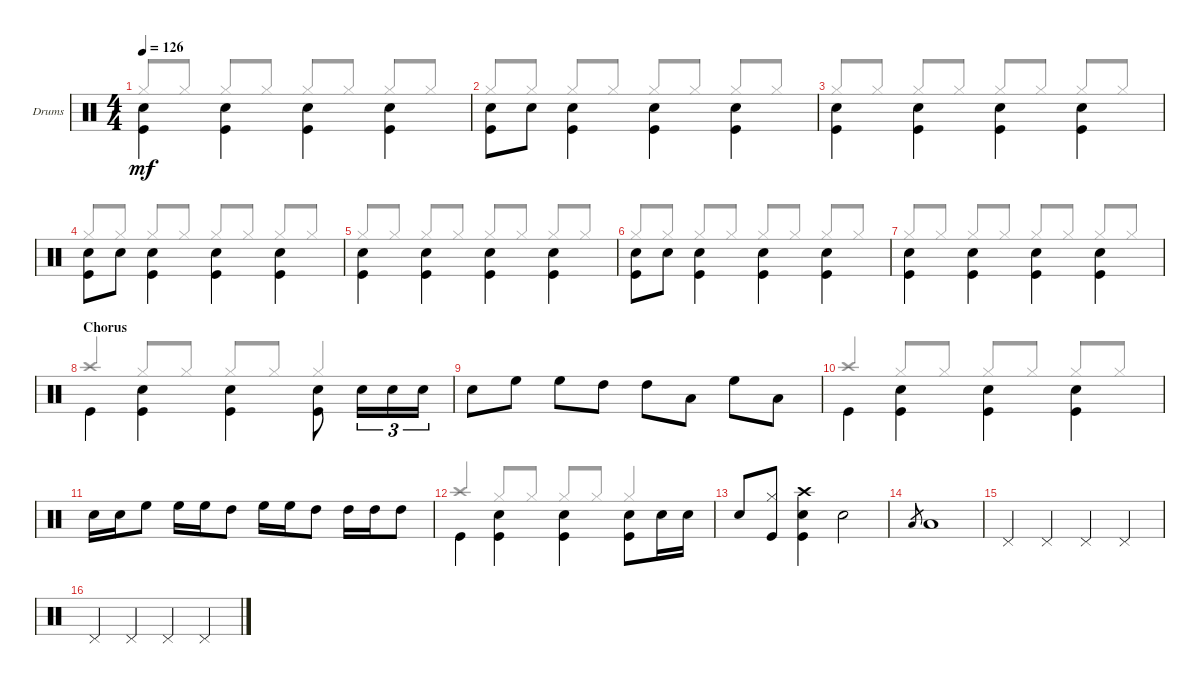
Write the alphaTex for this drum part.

\defaultSystemsLayout 4
\bracketExtendMode groupsimilarinstruments
\firstSystemTrackNameOrientation horizontal
\otherSystemsTrackNameOrientation horizontal
\track ("PETER CRISS" "Drums") {instrument percussion}
\staff {score}
\articulation defaults
\voice
\ts (4 4)
\tempo 126
\clef neutral
\ks c
("Snare (hit) 2" "Kick (hit)").4{dy mf beam invert} ("Snare (hit) 2" "Kick (hit)").4{beam invert} ("Snare (hit) 2" "Kick (hit)").4{beam invert} ("Snare (hit) 2" "Kick (hit)").4{beam invert} |
("Kick (hit)" "Snare (hit) 2").8{beam invert} "Snare (hit) 2".8 ("Snare (hit) 2" "Kick (hit)").4{beam invert} ("Snare (hit) 2" "Kick (hit)").4{beam invert} ("Snare (hit) 2" "Kick (hit)").4{beam invert} |
("Snare (hit) 2" "Kick (hit)").4{beam invert} ("Snare (hit) 2" "Kick (hit)").4{beam invert} ("Snare (hit) 2" "Kick (hit)").4{beam invert} ("Snare (hit) 2" "Kick (hit)").4{beam invert} |
("Kick (hit)" "Snare (hit) 2").8{beam invert} "Snare (hit) 2".8 ("Snare (hit) 2" "Kick (hit)").4{beam invert} ("Snare (hit) 2" "Kick (hit)").4{beam invert} ("Snare (hit) 2" "Kick (hit)").4{beam invert} |
("Snare (hit) 2" "Kick (hit)").4{beam invert} ("Snare (hit) 2" "Kick (hit)").4{beam invert} ("Snare (hit) 2" "Kick (hit)").4{beam invert} ("Snare (hit) 2" "Kick (hit)").4{beam invert} |
("Kick (hit)" "Snare (hit) 2").8{beam invert} "Snare (hit) 2".8 ("Snare (hit) 2" "Kick (hit)").4{beam invert} ("Snare (hit) 2" "Kick (hit)").4{beam invert} ("Snare (hit) 2" "Kick (hit)").4{beam invert} |
("Snare (hit) 2" "Kick (hit)").4{beam invert} ("Snare (hit) 2" "Kick (hit)").4{beam invert} ("Snare (hit) 2" "Kick (hit)").4{beam invert} ("Snare (hit) 2" "Kick (hit)").4{beam invert} |
\section ("" "Chorus")
"Kick (hit)".4{beam invert} ("Snare (hit) 2" "Kick (hit)").4{beam invert} ("Snare (hit) 2" "Kick (hit)").4{beam invert} ("Snare (hit) 2" "Kick (hit)").8{beam invert} "Snare (hit) 2".16{tu (3 2) beam invert} "Snare (hit) 2".16{tu (3 2)} "Snare (hit) 2".16{tu (3 2)} |
"Snare (hit) 2".8 "High Floor Tom (hit)".8 "High Floor Tom (hit)".8 "High Tom (hit)".8 "High Tom (hit)".8 "Low Tom (hit)".8 "High Floor Tom (hit)".8 "Low Tom (hit)".8 |
"Kick (hit)".4{beam invert} ("Snare (hit) 2" "Kick (hit)").4{beam invert} ("Snare (hit) 2" "Kick (hit)").4{beam invert} ("Snare (hit) 2" "Kick (hit)").4{beam invert} |
"Snare (hit) 2".16 "Snare (hit) 2".16 "High Floor Tom (hit)".8 "High Floor Tom (hit)".16 "High Floor Tom (hit)".16 "High Tom (hit)".8 "High Floor Tom (hit)".16 "High Floor Tom (hit)".16 "High Tom (hit)".8 "High Tom (hit)".16 "High Tom (hit)".16 "High Tom (hit)".8 |
"Kick (hit)".4{beam invert} ("Snare (hit) 2" "Kick (hit)").4{beam invert} ("Snare (hit) 2" "Kick (hit)").4{beam invert} ("Snare (hit) 2" "Kick (hit)").8{beam invert} "Snare (hit) 2".16 "Snare (hit) 2".16 |
"Snare (hit) 2".8{beam invert} ("Kick (hit)" "Hi-Hat (closed)").8 ("Crash high (hit)" "Snare (hit) 2" "Kick (hit)").4 "Snare (hit) 2".2 |
"Low Tom (hit)".8{gr} "Low Tom (hit)".1 |
"Pedal Hi-Hat (hit)".4 "Pedal Hi-Hat (hit)".4 "Pedal Hi-Hat (hit)".4 "Pedal Hi-Hat (hit)".4 |
"Pedal Hi-Hat (hit)".4 "Pedal Hi-Hat (hit)".4 "Pedal Hi-Hat (hit)".4 "Pedal Hi-Hat (hit)".4
\voice
\clef neutral
\ottava regular
\simile none
\ks c "Hi-Hat (closed)".8{dy mf beam invert} "Hi-Hat (closed)".8 "Hi-Hat (closed)".8{beam invert} "Hi-Hat (closed)".8 "Hi-Hat (closed)".8{beam invert} "Hi-Hat (closed)".8 "Hi-Hat (closed)".8{beam invert} "Hi-Hat (closed)".8
|
"Hi-Hat (closed)".8{beam invert} "Hi-Hat (closed)".8 "Hi-Hat (closed)".8{beam invert} "Hi-Hat (closed)".8 "Hi-Hat (closed)".8{beam invert} "Hi-Hat (closed)".8 "Hi-Hat (closed)".8{beam invert} "Hi-Hat (closed)".8 |
"Hi-Hat (closed)".8{beam invert} "Hi-Hat (closed)".8 "Hi-Hat (closed)".8{beam invert} "Hi-Hat (closed)".8 "Hi-Hat (closed)".8{beam invert} "Hi-Hat (closed)".8 "Hi-Hat (closed)".8{beam invert} "Hi-Hat (closed)".8 |
"Hi-Hat (closed)".8{beam invert} "Hi-Hat (closed)".8 "Hi-Hat (closed)".8{beam invert} "Hi-Hat (closed)".8 "Hi-Hat (closed)".8{beam invert} "Hi-Hat (closed)".8 "Hi-Hat (closed)".8{beam invert} "Hi-Hat (closed)".8 |
"Hi-Hat (closed)".8{beam invert} "Hi-Hat (closed)".8 "Hi-Hat (closed)".8{beam invert} "Hi-Hat (closed)".8 "Hi-Hat (closed)".8{beam invert} "Hi-Hat (closed)".8 "Hi-Hat (closed)".8{beam invert} "Hi-Hat (closed)".8 |
"Hi-Hat (closed)".8{beam invert} "Hi-Hat (closed)".8 "Hi-Hat (closed)".8{beam invert} "Hi-Hat (closed)".8 "Hi-Hat (closed)".8{beam invert} "Hi-Hat (closed)".8 "Hi-Hat (closed)".8{beam invert} "Hi-Hat (closed)".8 |
"Hi-Hat (closed)".8{beam invert} "Hi-Hat (closed)".8 "Hi-Hat (closed)".8{beam invert} "Hi-Hat (closed)".8 "Hi-Hat (closed)".8{beam invert} "Hi-Hat (closed)".8 "Hi-Hat (closed)".8{beam invert} "Hi-Hat (closed)".8 |
"Crash high (hit)".4{beam invert} "Hi-Hat (closed)".8{beam invert} "Hi-Hat (closed)".8 "Hi-Hat (closed)".8{beam invert} "Hi-Hat (closed)".8 "Hi-Hat (closed)".4{beam invert} |
|
"Crash high (hit)".4{beam invert} "Hi-Hat (closed)".8{beam invert} "Hi-Hat (closed)".8 "Hi-Hat (closed)".8{beam invert} "Hi-Hat (closed)".8 "Hi-Hat (closed)".8{beam invert} "Hi-Hat (closed)".8 |
|
"Crash high (hit)".4{beam invert} "Hi-Hat (closed)".8{beam invert} "Hi-Hat (closed)".8 "Hi-Hat (closed)".8{beam invert} "Hi-Hat (closed)".8 "Hi-Hat (closed)".4{beam invert} |
|
|
|
